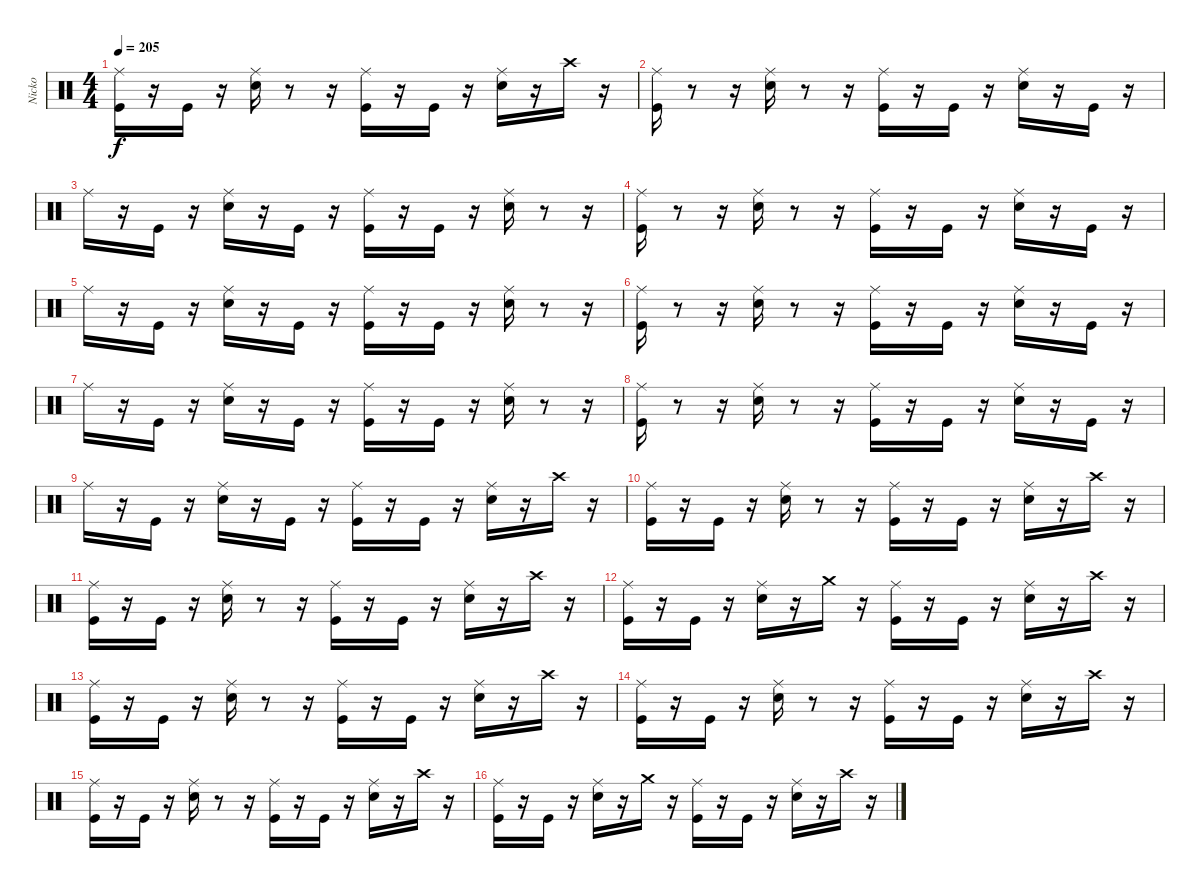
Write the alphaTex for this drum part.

\track ("Nicko" "Nicko") {instrument percussion}
\staff {score}
\articulation defaults
\ts (4 4)
\tempo 205
\clef neutral
\ks c
("Ride (middle)" "Kick (hit)").16{dy f} r.16 "Kick (hit)".16 r.16 ("Ride (middle)" "Snare (hit) 2").16 r.8 r.16 ("Ride (middle)" "Kick (hit)").16 r.16 "Kick (hit)".16 r.16 ("Ride (middle)" "Snare (hit) 2").16 r.16 "Crash high (hit)".16 r.16 |
("Ride (middle)" "Kick (hit)").16 r.8 r.16 ("Ride (middle)" "Snare (hit) 2").16 r.8 r.16 ("Ride (middle)" "Kick (hit)").16 r.16 "Kick (hit)".16 r.16 ("Ride (middle)" "Snare (hit) 2").16 r.16 "Kick (hit)".16 r.16 |
"Ride (middle)".16 r.16 "Kick (hit)".16 r.16 ("Ride (middle)" "Snare (hit) 2").16 r.16 "Kick (hit)".16 r.16 ("Ride (middle)" "Kick (hit)").16 r.16 "Kick (hit)".16 r.16 ("Ride (middle)" "Snare (hit) 2").16 r.8 r.16 |
("Ride (middle)" "Kick (hit)").16 r.8 r.16 ("Ride (middle)" "Snare (hit) 2").16 r.8 r.16 ("Ride (middle)" "Kick (hit)").16 r.16 "Kick (hit)".16 r.16 ("Ride (middle)" "Snare (hit) 2").16 r.16 "Kick (hit)".16 r.16 |
"Ride (middle)".16 r.16 "Kick (hit)".16 r.16 ("Ride (middle)" "Snare (hit) 2").16 r.16 "Kick (hit)".16 r.16 ("Ride (middle)" "Kick (hit)").16 r.16 "Kick (hit)".16 r.16 ("Ride (middle)" "Snare (hit) 2").16 r.8 r.16 |
("Ride (middle)" "Kick (hit)").16 r.8 r.16 ("Ride (middle)" "Snare (hit) 2").16 r.8 r.16 ("Ride (middle)" "Kick (hit)").16 r.16 "Kick (hit)".16 r.16 ("Ride (middle)" "Snare (hit) 2").16 r.16 "Kick (hit)".16 r.16 |
"Ride (middle)".16 r.16 "Kick (hit)".16 r.16 ("Ride (middle)" "Snare (hit) 2").16 r.16 "Kick (hit)".16 r.16 ("Ride (middle)" "Kick (hit)").16 r.16 "Kick (hit)".16 r.16 ("Ride (middle)" "Snare (hit) 2").16 r.8 r.16 |
("Ride (middle)" "Kick (hit)").16 r.8 r.16 ("Ride (middle)" "Snare (hit) 2").16 r.8 r.16 ("Ride (middle)" "Kick (hit)").16 r.16 "Kick (hit)".16 r.16 ("Ride (middle)" "Snare (hit) 2").16 r.16 "Kick (hit)".16 r.16 |
"Ride (middle)".16{volume 14} r.16 "Kick (hit)".16 r.16 ("Ride (middle)" "Snare (hit) 2").16 r.16 "Kick (hit)".16 r.16 ("Ride (middle)" "Kick (hit)").16 r.16 "Kick (hit)".16 r.16 ("Ride (middle)" "Snare (hit) 2").16 r.16 "Crash high (hit)".16 r.16 |
("Kick (hit)" "Ride (middle)").16 r.16 "Kick (hit)".16 r.16 ("Snare (hit) 2" "Ride (middle)").16 r.8 r.16 ("Kick (hit)" "Ride (middle)").16 r.16 "Kick (hit)".16 r.16 ("Snare (hit) 2" "Ride (middle)").16 r.16 "Crash high (hit)".16 r.16 |
("Kick (hit)" "Ride (middle)").16 r.16 "Kick (hit)".16 r.16 ("Snare (hit) 2" "Ride (middle)").16 r.8 r.16 ("Kick (hit)" "Ride (middle)").16 r.16 "Kick (hit)".16 r.16 ("Snare (hit) 2" "Ride (middle)").16 r.16 "Crash high (hit)".16 r.16 |
("Kick (hit)" "Ride (middle)").16 r.16 "Kick (hit)".16 r.16 ("Snare (hit) 2" "Ride (middle)").16 r.16 "Crash medium (hit)".16 r.16 ("Kick (hit)" "Ride (middle)").16 r.16 "Kick (hit)".16 r.16 ("Snare (hit) 2" "Ride (middle)").16 r.16 "Crash high (hit)".16 r.16 |
("Kick (hit)" "Ride (middle)").16 r.16 "Kick (hit)".16 r.16 ("Snare (hit) 2" "Ride (middle)").16 r.8 r.16 ("Ride (middle)" "Kick (hit)").16 r.16 "Kick (hit)".16 r.16 ("Snare (hit) 2" "Ride (middle)").16 r.16 "Crash high (hit)".16 r.16 |
("Kick (hit)" "Ride (middle)").16 r.16 "Kick (hit)".16 r.16 ("Snare (hit) 2" "Ride (middle)").16 r.8 r.16 ("Ride (middle)" "Kick (hit)").16 r.16 "Kick (hit)".16 r.16 ("Snare (hit) 2" "Ride (middle)").16 r.16 "Crash high (hit)".16 r.16 |
("Kick (hit)" "Ride (middle)").16 r.16 "Kick (hit)".16 r.16 ("Snare (hit) 2" "Ride (middle)").16 r.8 r.16 ("Ride (middle)" "Kick (hit)").16 r.16 "Kick (hit)".16 r.16 ("Snare (hit) 2" "Ride (middle)").16 r.16 "Crash high (hit)".16 r.16 |
("Kick (hit)" "Ride (middle)").16 r.16 "Kick (hit)".16 r.16 ("Snare (hit) 2" "Ride (middle)").16 r.16 "Crash medium (hit)".16 r.16 ("Ride (middle)" "Kick (hit)").16 r.16 "Kick (hit)".16 r.16 ("Snare (hit) 2" "Ride (middle)").16 r.16 "Crash high (hit)".16 r.16
